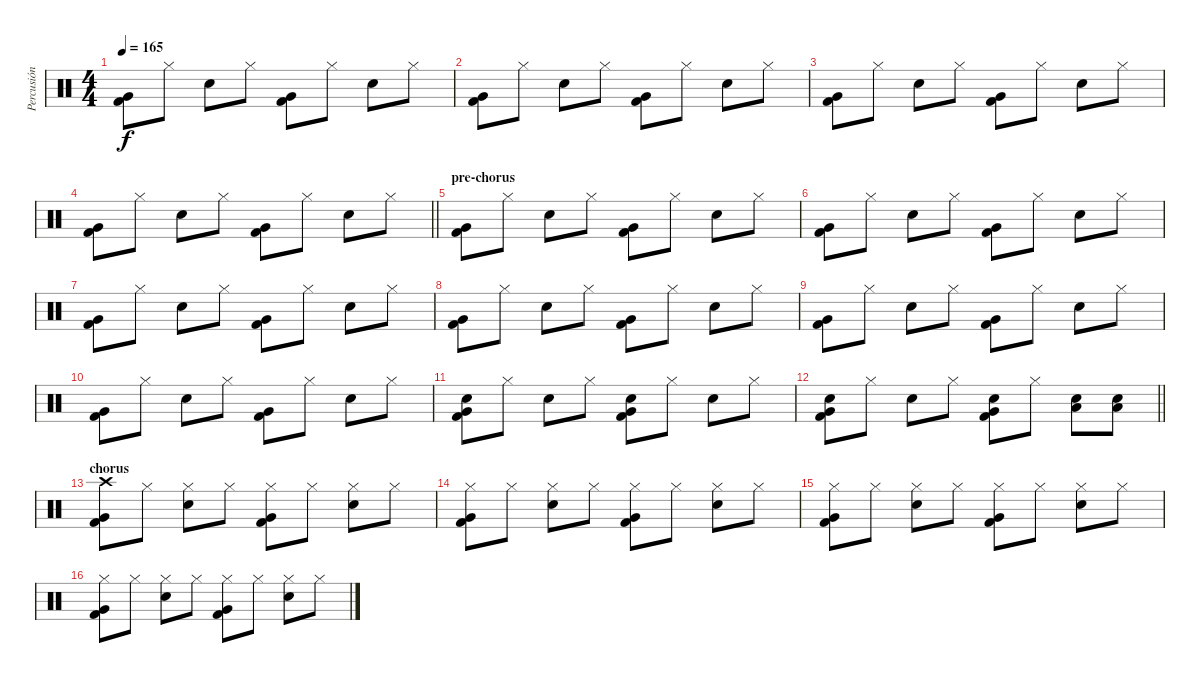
\track ("Percusión" "Percusión") {instrument percussion}
\staff {score}
\articulation defaults
\ts (4 4)
\tempo 165
\clef neutral
\ks c
("Kick (hit) 2" "Very Low Tom (hit)").8{dy f} "Hi-Hat (closed)".8 "Electric Snare (hit)".8 "Hi-Hat (closed)".8 ("Kick (hit) 2" "Very Low Tom (hit)").8 "Hi-Hat (closed)".8 "Electric Snare (hit)".8 "Hi-Hat (closed)".8 |
("Kick (hit) 2" "Very Low Tom (hit)").8 "Hi-Hat (closed)".8 "Electric Snare (hit)".8 "Hi-Hat (closed)".8 ("Kick (hit) 2" "Very Low Tom (hit)").8 "Hi-Hat (closed)".8 "Electric Snare (hit)".8 "Hi-Hat (closed)".8 |
("Kick (hit) 2" "Very Low Tom (hit)").8 "Hi-Hat (closed)".8 "Electric Snare (hit)".8 "Hi-Hat (closed)".8 ("Kick (hit) 2" "Very Low Tom (hit)").8 "Hi-Hat (closed)".8 "Electric Snare (hit)".8 "Hi-Hat (closed)".8 |
\barLineRight lightlight
("Kick (hit) 2" "Very Low Tom (hit)").8 "Hi-Hat (closed)".8 "Electric Snare (hit)".8 "Hi-Hat (closed)".8 ("Kick (hit) 2" "Very Low Tom (hit)").8 "Hi-Hat (closed)".8 "Electric Snare (hit)".8 "Hi-Hat (closed)".8 |
\section ("" "pre-chorus")
("Kick (hit) 2" "Very Low Tom (hit)").8 "Hi-Hat (closed)".8 "Electric Snare (hit)".8 "Hi-Hat (closed)".8 ("Kick (hit) 2" "Very Low Tom (hit)").8 "Hi-Hat (closed)".8 "Electric Snare (hit)".8 "Hi-Hat (closed)".8 |
("Kick (hit) 2" "Very Low Tom (hit)").8 "Hi-Hat (closed)".8 "Electric Snare (hit)".8 "Hi-Hat (closed)".8 ("Kick (hit) 2" "Very Low Tom (hit)").8 "Hi-Hat (closed)".8 "Electric Snare (hit)".8 "Hi-Hat (closed)".8 |
("Kick (hit) 2" "Very Low Tom (hit)").8 "Hi-Hat (closed)".8 "Electric Snare (hit)".8 "Hi-Hat (closed)".8 ("Kick (hit) 2" "Very Low Tom (hit)").8 "Hi-Hat (closed)".8 "Electric Snare (hit)".8 "Hi-Hat (closed)".8 |
("Kick (hit) 2" "Very Low Tom (hit)").8 "Hi-Hat (closed)".8 "Electric Snare (hit)".8 "Hi-Hat (closed)".8 ("Kick (hit) 2" "Very Low Tom (hit)").8 "Hi-Hat (closed)".8 "Electric Snare (hit)".8 "Hi-Hat (closed)".8 |
("Kick (hit) 2" "Very Low Tom (hit)").8 "Hi-Hat (closed)".8 "Electric Snare (hit)".8 "Hi-Hat (closed)".8 ("Kick (hit) 2" "Very Low Tom (hit)").8 "Hi-Hat (closed)".8 "Electric Snare (hit)".8 "Hi-Hat (closed)".8 |
("Kick (hit) 2" "Very Low Tom (hit)").8 "Hi-Hat (closed)".8 "Electric Snare (hit)".8 "Hi-Hat (closed)".8 ("Kick (hit) 2" "Very Low Tom (hit)").8 "Hi-Hat (closed)".8 "Electric Snare (hit)".8 "Hi-Hat (closed)".8 |
("Electric Snare (hit)" "Kick (hit) 2" "Very Low Tom (hit)").8 "Hi-Hat (closed)".8 "Electric Snare (hit)".8 "Hi-Hat (closed)".8 ("Electric Snare (hit)" "Kick (hit) 2" "Very Low Tom (hit)").8 "Hi-Hat (closed)".8 "Electric Snare (hit)".8 "Hi-Hat (closed)".8 |
\barLineRight lightlight
("Electric Snare (hit)" "Kick (hit) 2" "Very Low Tom (hit)").8 "Hi-Hat (closed)".8 "Electric Snare (hit)".8 "Hi-Hat (closed)".8 ("Electric Snare (hit)" "Kick (hit) 2" "Very Low Tom (hit)").8 "Hi-Hat (closed)".8 ("Electric Snare (hit)" "Low Tom (hit)").8 ("Electric Snare (hit)" "Low Tom (hit)").8 |
\section ("" "chorus")
("Crash high (hit)" "Kick (hit) 2" "Very Low Tom (hit)").8 "Hi-Hat (closed)".8 ("Hi-Hat (closed)" "Electric Snare (hit)").8 "Hi-Hat (closed)".8 ("Hi-Hat (closed)" "Kick (hit) 2" "Very Low Tom (hit)").8 "Hi-Hat (closed)".8 ("Hi-Hat (closed)" "Electric Snare (hit)").8 "Hi-Hat (closed)".8 |
("Hi-Hat (closed)" "Kick (hit) 2" "Very Low Tom (hit)").8 "Hi-Hat (closed)".8 ("Hi-Hat (closed)" "Electric Snare (hit)").8 "Hi-Hat (closed)".8 ("Hi-Hat (closed)" "Kick (hit) 2" "Very Low Tom (hit)").8 "Hi-Hat (closed)".8 ("Hi-Hat (closed)" "Electric Snare (hit)").8 "Hi-Hat (closed)".8 |
("Hi-Hat (closed)" "Kick (hit) 2" "Very Low Tom (hit)").8 "Hi-Hat (closed)".8 ("Hi-Hat (closed)" "Electric Snare (hit)").8 "Hi-Hat (closed)".8 ("Hi-Hat (closed)" "Kick (hit) 2" "Very Low Tom (hit)").8 "Hi-Hat (closed)".8 ("Hi-Hat (closed)" "Electric Snare (hit)").8 "Hi-Hat (closed)".8 |
("Hi-Hat (closed)" "Kick (hit) 2" "Very Low Tom (hit)").8 "Hi-Hat (closed)".8 ("Hi-Hat (closed)" "Electric Snare (hit)").8 "Hi-Hat (closed)".8 ("Hi-Hat (closed)" "Kick (hit) 2" "Very Low Tom (hit)").8 "Hi-Hat (closed)".8 ("Hi-Hat (closed)" "Electric Snare (hit)").8 "Hi-Hat (closed)".8
